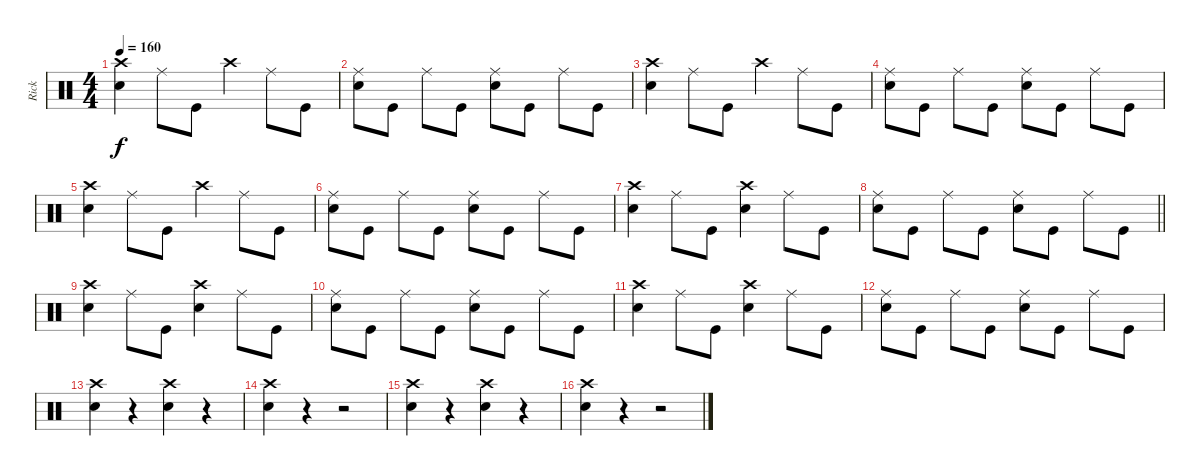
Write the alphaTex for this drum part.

\track ("Rick" "Rick") {instrument percussion}
\staff {score}
\articulation defaults
\ts (4 4)
\tempo 160
\clef neutral
\ks c
("Crash high (hit)" "Snare (hit) 2").4{dy f} "Ride (middle)".8 "Kick (hit)".8 "Crash high (hit)".4 "Ride (middle)".8 "Kick (hit)".8 |
("Ride (middle)" "Snare (hit) 2").8 "Kick (hit)".8 "Ride (middle)".8 "Kick (hit)".8 ("Ride (middle)" "Snare (hit) 2").8 "Kick (hit)".8 "Ride (middle)".8 "Kick (hit)".8 |
("Crash high (hit)" "Snare (hit) 2").4 "Ride (middle)".8 "Kick (hit)".8 "Crash high (hit)".4 "Ride (middle)".8 "Kick (hit)".8 |
("Ride (middle)" "Snare (hit) 2").8 "Kick (hit)".8 "Ride (middle)".8 "Kick (hit)".8 ("Ride (middle)" "Snare (hit) 2").8 "Kick (hit)".8 "Ride (middle)".8 "Kick (hit)".8 |
("Crash high (hit)" "Snare (hit) 2").4 "Ride (middle)".8 "Kick (hit)".8 "Crash high (hit)".4 "Ride (middle)".8 "Kick (hit)".8 |
("Ride (middle)" "Snare (hit) 2").8 "Kick (hit)".8 "Ride (middle)".8 "Kick (hit)".8 ("Ride (middle)" "Snare (hit) 2").8 "Kick (hit)".8 "Ride (middle)".8 "Kick (hit)".8 |
("Crash high (hit)" "Snare (hit) 2").4 "Ride (middle)".8 "Kick (hit)".8 ("Crash high (hit)" "Snare (hit) 2").4 "Ride (middle)".8 "Kick (hit)".8 |
\barLineRight lightlight
("Ride (middle)" "Snare (hit) 2").8 "Kick (hit)".8 "Ride (middle)".8 "Kick (hit)".8 ("Ride (middle)" "Snare (hit) 2").8 "Kick (hit)".8 "Ride (middle)".8 "Kick (hit)".8 |
("Crash high (hit)" "Snare (hit) 2").4 "Ride (middle)".8 "Kick (hit)".8 ("Crash high (hit)" "Snare (hit) 2").4 "Ride (middle)".8 "Kick (hit)".8 |
("Ride (middle)" "Snare (hit) 2").8 "Kick (hit)".8 "Ride (middle)".8 "Kick (hit)".8 ("Ride (middle)" "Snare (hit) 2").8 "Kick (hit)".8 "Ride (middle)".8 "Kick (hit)".8 |
("Crash high (hit)" "Snare (hit) 2").4 "Ride (middle)".8 "Kick (hit)".8 ("Crash high (hit)" "Snare (hit) 2").4 "Ride (middle)".8 "Kick (hit)".8 |
("Ride (middle)" "Snare (hit) 2").8 "Kick (hit)".8 "Ride (middle)".8 "Kick (hit)".8 ("Ride (middle)" "Snare (hit) 2").8 "Kick (hit)".8 "Ride (middle)".8 "Kick (hit)".8 |
("Crash high (hit)" "Snare (hit) 2").4 r.4 ("Crash high (hit)" "Snare (hit) 2").4 r.4 |
("Crash high (hit)" "Snare (hit) 2").4 r.4 r.2 |
("Crash high (hit)" "Snare (hit) 2").4 r.4 ("Crash high (hit)" "Snare (hit) 2").4 r.4 |
("Crash high (hit)" "Snare (hit) 2").4 r.4 r.2
